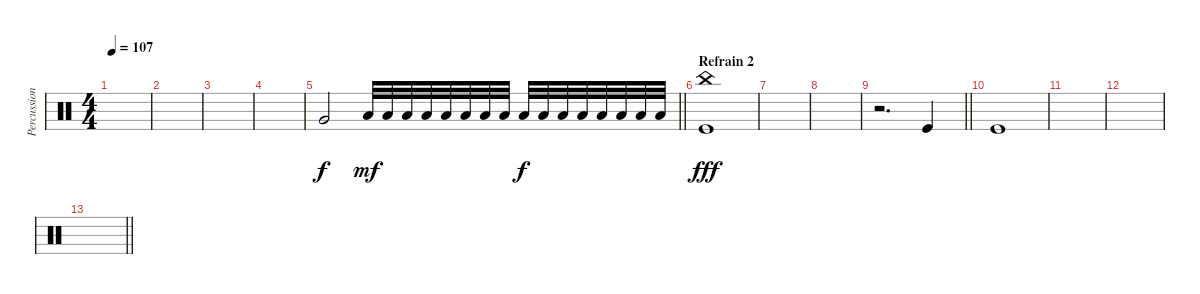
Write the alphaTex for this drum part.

\track ("Percussions" "Percussion") {instrument percussion}
\staff {score}
\articulation defaults
\ts (4 4)
\tempo 107
\clef neutral
\ks c
|
|
|
|
\barLineRight lightlight "Very Low Tom (hit)".2 "Low Floor Tom (hit)".32{dy mf} "Low Floor Tom (hit)".32 "Low Floor Tom (hit)".32 "Low Floor Tom (hit)".32 "Low Floor Tom (hit)".32 "Low Floor Tom (hit)".32 "Low Floor Tom (hit)".32 "Low Floor Tom (hit)".32 "Low Floor Tom (hit)".32{dy f} "Low Floor Tom (hit)".32 "Low Floor Tom (hit)".32 "Low Floor Tom (hit)".32 "Low Floor Tom (hit)".32 "Low Floor Tom (hit)".32 "Low Floor Tom (hit)".32 "Low Floor Tom (hit)".32
|
\section ("" "Refrain 2")
("China (hit)" "Kick (hit)").1{dy fff} |
|
|
\barLineRight lightlight
r.2{d} "Kick (hit)".4 |
"Kick (hit)".1 |
|
|
\barLineRight lightlight
